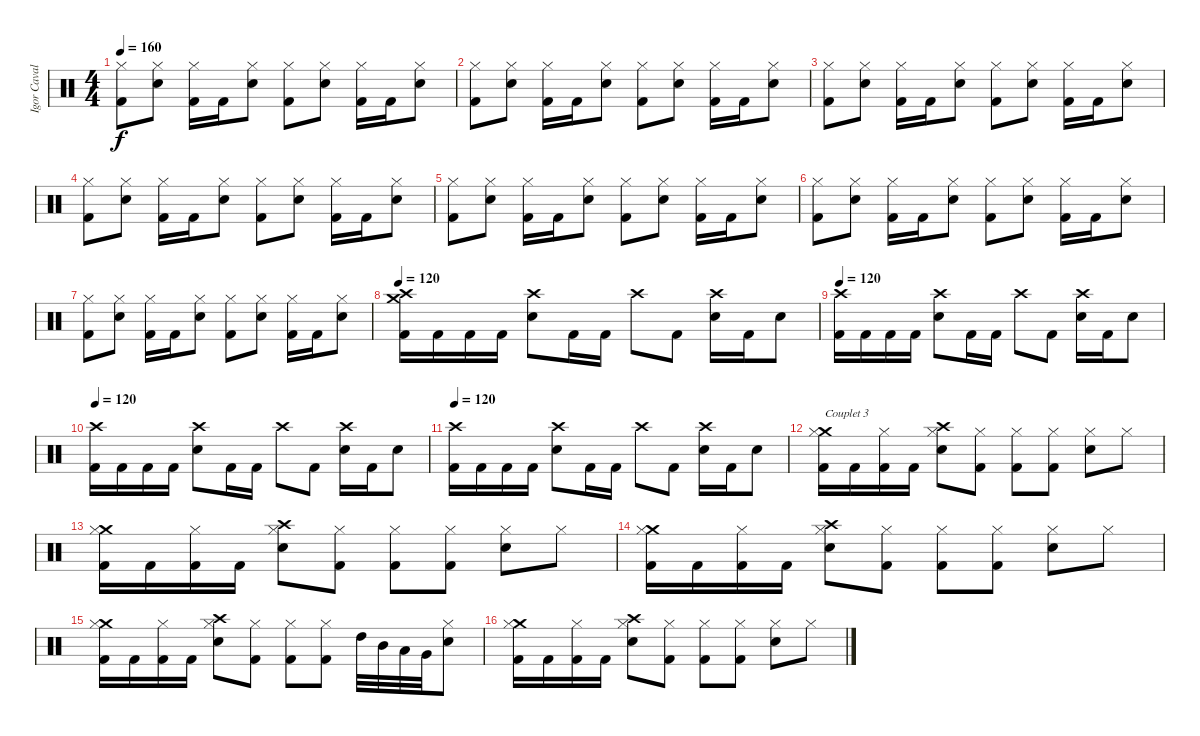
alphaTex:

\track ("Igor Cavalera" "Igor Caval") {instrument percussion}
\staff {score}
\articulation defaults
\ts (4 4)
\tempo 160
\clef neutral
\ks c
("Hi-Hat (closed)" "Kick (hit) 2").8{dy f} ("Electric Snare (hit)" "Hi-Hat (closed)").8 ("Hi-Hat (closed)" "Kick (hit) 2").16 "Kick (hit) 2".16 ("Electric Snare (hit)" "Hi-Hat (closed)").8 ("Hi-Hat (closed)" "Kick (hit) 2").8 ("Electric Snare (hit)" "Hi-Hat (closed)").8 ("Hi-Hat (closed)" "Kick (hit) 2").16 "Kick (hit) 2".16 ("Electric Snare (hit)" "Hi-Hat (closed)").8 |
("Hi-Hat (closed)" "Kick (hit) 2").8 ("Electric Snare (hit)" "Hi-Hat (closed)").8 ("Hi-Hat (closed)" "Kick (hit) 2").16 "Kick (hit) 2".16 ("Electric Snare (hit)" "Hi-Hat (closed)").8 ("Hi-Hat (closed)" "Kick (hit) 2").8 ("Electric Snare (hit)" "Hi-Hat (closed)").8 ("Hi-Hat (closed)" "Kick (hit) 2").16 "Kick (hit) 2".16 ("Electric Snare (hit)" "Hi-Hat (closed)").8 |
("Hi-Hat (closed)" "Kick (hit) 2").8 ("Electric Snare (hit)" "Hi-Hat (closed)").8 ("Hi-Hat (closed)" "Kick (hit) 2").16 "Kick (hit) 2".16 ("Electric Snare (hit)" "Hi-Hat (closed)").8 ("Hi-Hat (closed)" "Kick (hit) 2").8 ("Electric Snare (hit)" "Hi-Hat (closed)").8 ("Hi-Hat (closed)" "Kick (hit) 2").16 "Kick (hit) 2".16 ("Electric Snare (hit)" "Hi-Hat (closed)").8 |
("Hi-Hat (closed)" "Kick (hit) 2").8 ("Electric Snare (hit)" "Hi-Hat (closed)").8 ("Hi-Hat (closed)" "Kick (hit) 2").16 "Kick (hit) 2".16 ("Electric Snare (hit)" "Hi-Hat (closed)").8 ("Hi-Hat (closed)" "Kick (hit) 2").8 ("Electric Snare (hit)" "Hi-Hat (closed)").8 ("Hi-Hat (closed)" "Kick (hit) 2").16 "Kick (hit) 2".16 ("Electric Snare (hit)" "Hi-Hat (closed)").8 |
("Hi-Hat (closed)" "Kick (hit) 2").8 ("Electric Snare (hit)" "Hi-Hat (closed)").8 ("Hi-Hat (closed)" "Kick (hit) 2").16 "Kick (hit) 2".16 ("Electric Snare (hit)" "Hi-Hat (closed)").8 ("Hi-Hat (closed)" "Kick (hit) 2").8 ("Electric Snare (hit)" "Hi-Hat (closed)").8 ("Hi-Hat (closed)" "Kick (hit) 2").16 "Kick (hit) 2".16 ("Electric Snare (hit)" "Hi-Hat (closed)").8 |
("Hi-Hat (closed)" "Kick (hit) 2").8 ("Electric Snare (hit)" "Hi-Hat (closed)").8 ("Hi-Hat (closed)" "Kick (hit) 2").16 "Kick (hit) 2".16 ("Electric Snare (hit)" "Hi-Hat (closed)").8 ("Hi-Hat (closed)" "Kick (hit) 2").8 ("Electric Snare (hit)" "Hi-Hat (closed)").8 ("Hi-Hat (closed)" "Kick (hit) 2").16 "Kick (hit) 2".16 ("Electric Snare (hit)" "Hi-Hat (closed)").8 |
("Hi-Hat (closed)" "Kick (hit) 2").8 ("Electric Snare (hit)" "Hi-Hat (closed)").8 ("Hi-Hat (closed)" "Kick (hit) 2").16 "Kick (hit) 2".16 ("Electric Snare (hit)" "Hi-Hat (closed)").8 ("Hi-Hat (closed)" "Kick (hit) 2").8 ("Electric Snare (hit)" "Hi-Hat (closed)").8 ("Hi-Hat (closed)" "Kick (hit) 2").16 "Kick (hit) 2".16 ("Electric Snare (hit)" "Hi-Hat (closed)").8 |
\tempo 120
("Crash medium (hit)" "Crash high (hit)" "Kick (hit) 2").16 "Kick (hit) 2".16 "Kick (hit) 2".16 "Kick (hit) 2".16 ("Crash high (hit)" "Electric Snare (hit)").8 "Kick (hit) 2".16 "Kick (hit) 2".16 "Crash high (hit)".8 "Kick (hit) 2".8 ("Crash high (hit)" "Electric Snare (hit)").16 "Kick (hit) 2".16 "Electric Snare (hit)".8 |
\tempo 120
("Crash high (hit)" "Kick (hit) 2").16 "Kick (hit) 2".16 "Kick (hit) 2".16 "Kick (hit) 2".16 ("Crash high (hit)" "Electric Snare (hit)").8 "Kick (hit) 2".16 "Kick (hit) 2".16 "Crash high (hit)".8 "Kick (hit) 2".8 ("Crash high (hit)" "Electric Snare (hit)").16 "Kick (hit) 2".16 "Electric Snare (hit)".8 |
\tempo 120
("Crash high (hit)" "Kick (hit) 2").16 "Kick (hit) 2".16 "Kick (hit) 2".16 "Kick (hit) 2".16 ("Crash high (hit)" "Electric Snare (hit)").8 "Kick (hit) 2".16 "Kick (hit) 2".16 "Crash high (hit)".8 "Kick (hit) 2".8 ("Crash high (hit)" "Electric Snare (hit)").16 "Kick (hit) 2".16 "Electric Snare (hit)".8 |
\tempo 120
("Crash high (hit)" "Kick (hit) 2").16 "Kick (hit) 2".16 "Kick (hit) 2".16 "Kick (hit) 2".16 ("Crash high (hit)" "Electric Snare (hit)").8 "Kick (hit) 2".16 "Kick (hit) 2".16 "Crash high (hit)".8 "Kick (hit) 2".8 ("Crash high (hit)" "Electric Snare (hit)").16 "Kick (hit) 2".16 "Electric Snare (hit)".8 |
("Crash medium (hit)" "Hi-Hat (closed)" "Kick (hit) 2").16{txt "Couplet 3"} "Kick (hit) 2".16 ("Hi-Hat (closed)" "Kick (hit) 2").16 "Kick (hit) 2".16 ("Crash high (hit)" "Electric Snare (hit)" "Hi-Hat (closed)").8 ("Hi-Hat (closed)" "Kick (hit) 2").8 ("Hi-Hat (closed)" "Kick (hit) 2").8 ("Hi-Hat (closed)" "Kick (hit) 2").8 ("Electric Snare (hit)" "Hi-Hat (closed)").8 "Hi-Hat (closed)".8 |
("Crash medium (hit)" "Hi-Hat (closed)" "Kick (hit) 2").16 "Kick (hit) 2".16 ("Hi-Hat (closed)" "Kick (hit) 2").16 "Kick (hit) 2".16 ("Crash high (hit)" "Electric Snare (hit)" "Hi-Hat (closed)").8 ("Hi-Hat (closed)" "Kick (hit) 2").8 ("Hi-Hat (closed)" "Kick (hit) 2").8 ("Hi-Hat (closed)" "Kick (hit) 2").8 ("Electric Snare (hit)" "Hi-Hat (closed)").8 "Hi-Hat (closed)".8 |
("Crash medium (hit)" "Hi-Hat (closed)" "Kick (hit) 2").16 "Kick (hit) 2".16 ("Hi-Hat (closed)" "Kick (hit) 2").16 "Kick (hit) 2".16 ("Crash high (hit)" "Electric Snare (hit)" "Hi-Hat (closed)").8 ("Hi-Hat (closed)" "Kick (hit) 2").8 ("Hi-Hat (closed)" "Kick (hit) 2").8 ("Hi-Hat (closed)" "Kick (hit) 2").8 ("Electric Snare (hit)" "Hi-Hat (closed)").8 "Hi-Hat (closed)".8 |
("Crash medium (hit)" "Hi-Hat (closed)" "Kick (hit) 2").16 "Kick (hit) 2".16 ("Hi-Hat (closed)" "Kick (hit) 2").16 "Kick (hit) 2".16 ("Crash high (hit)" "Electric Snare (hit)" "Hi-Hat (closed)").8 ("Hi-Hat (closed)" "Kick (hit) 2").8 ("Hi-Hat (closed)" "Kick (hit) 2").8 ("Hi-Hat (closed)" "Kick (hit) 2").8 "High Tom (hit)".32 "Mid Tom (hit)".32 "Low Tom (hit)".32 "Very Low Tom (hit)".32 ("Electric Snare (hit)" "Hi-Hat (closed)").8 |
("Crash medium (hit)" "Hi-Hat (closed)" "Kick (hit) 2").16 "Kick (hit) 2".16 ("Hi-Hat (closed)" "Kick (hit) 2").16 "Kick (hit) 2".16 ("Crash high (hit)" "Electric Snare (hit)" "Hi-Hat (closed)").8 ("Hi-Hat (closed)" "Kick (hit) 2").8 ("Hi-Hat (closed)" "Kick (hit) 2").8 ("Hi-Hat (closed)" "Kick (hit) 2").8 ("Electric Snare (hit)" "Hi-Hat (closed)").8 "Hi-Hat (closed)".8
